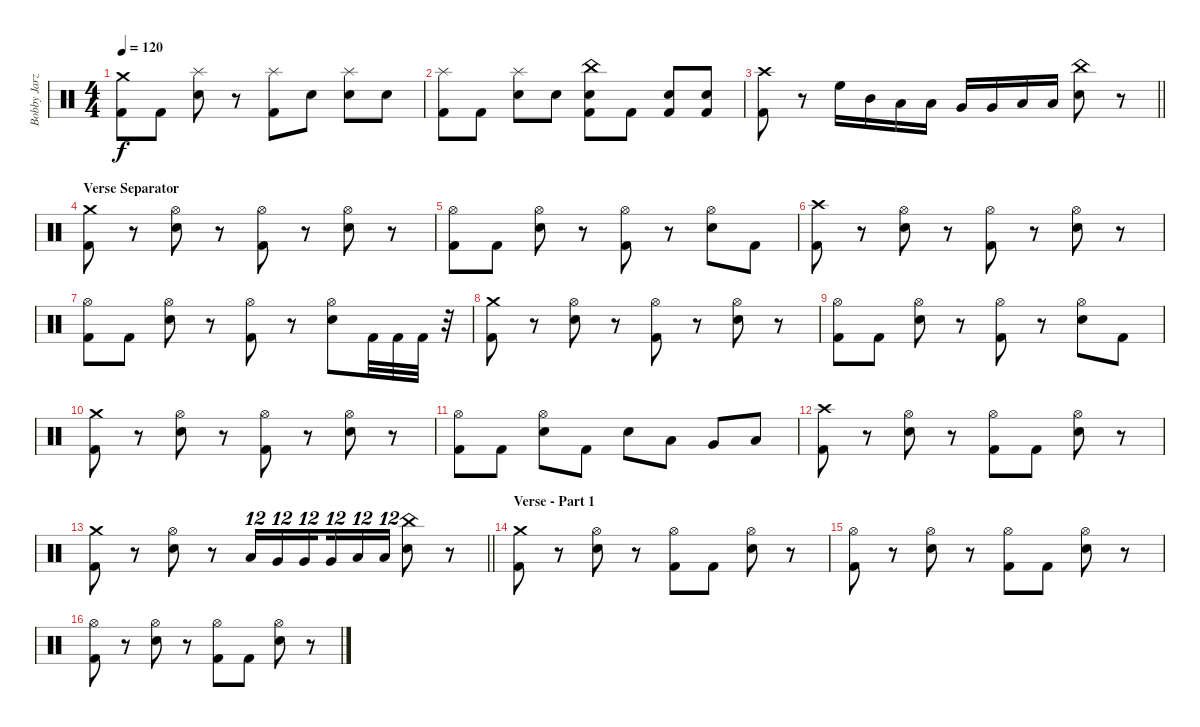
\track ("Bobby Jarzombek - Drums" "Bobby Jarz") {instrument percussion}
\staff {score}
\articulation defaults
\ts (4 4)
\tempo 120
\clef neutral
\ks c
("Crash medium (hit)" "Kick (hit) 2").8{dy f} "Kick (hit) 2".8 ("Splash (hit)" "Electric Snare (hit)").8 r.8 ("Splash (hit)" "Kick (hit) 2").8 "Snare (hit)".8 ("Splash (hit)" "Electric Snare (hit)").8 "Snare (hit)".8 |
("Splash (hit)" "Kick (hit) 2").8 "Kick (hit) 2".8 ("Splash (hit)" "Electric Snare (hit)").8 "Snare (hit)".8 ("China (hit)" "Electric Snare (hit)" "Kick (hit) 2").8 "Kick (hit) 2".8 ("Electric Snare (hit)" "Kick (hit) 2").8 ("Electric Snare (hit)" "Kick (hit) 2").8 |
\barLineRight lightlight
("Crash high (hit)" "Kick (hit) 2").8 r.8 "High Floor Tom (hit)".16 "Mid Tom (hit)".16 "Low Tom (hit)".16 "Low Tom (hit)".16 "Very Low Tom (hit)".16 "Very Low Tom (hit)".16 "Low Floor Tom (hit)".16 "Low Floor Tom (hit)".16 ("China (hit)" "Electric Snare (hit)").8 r.8 |
\section ("" "Verse Separator")
("Crash medium (hit)" "Kick (hit) 2").8 r.8 ("Hi-Hat (open)" "Electric Snare (hit)").8 r.8 ("Hi-Hat (open)" "Kick (hit) 2").8 r.8 ("Hi-Hat (open)" "Electric Snare (hit)").8 r.8 |
("Hi-Hat (open)" "Kick (hit) 2").8 "Kick (hit) 2".8 ("Hi-Hat (open)" "Electric Snare (hit)").8 r.8 ("Hi-Hat (open)" "Kick (hit) 2").8 r.8 ("Hi-Hat (open)" "Electric Snare (hit)").8 "Kick (hit) 2".8 |
("Crash high (hit)" "Kick (hit) 2").8 r.8 ("Hi-Hat (open)" "Electric Snare (hit)").8 r.8 ("Hi-Hat (open)" "Kick (hit) 2").8 r.8 ("Hi-Hat (open)" "Electric Snare (hit)").8 r.8 |
("Hi-Hat (open)" "Kick (hit) 2").8 "Kick (hit) 2".8 ("Hi-Hat (open)" "Electric Snare (hit)").8 r.8 ("Hi-Hat (open)" "Kick (hit) 2").8 r.8 ("Hi-Hat (open)" "Electric Snare (hit)").8 "Kick (hit) 2".32 "Kick (hit) 2".32 "Kick (hit) 2".32 r.32 |
("Crash medium (hit)" "Kick (hit) 2").8 r.8 ("Hi-Hat (open)" "Electric Snare (hit)").8 r.8 ("Hi-Hat (open)" "Kick (hit) 2").8 r.8 ("Hi-Hat (open)" "Electric Snare (hit)").8 r.8 |
("Hi-Hat (open)" "Kick (hit) 2").8 "Kick (hit) 2".8 ("Hi-Hat (open)" "Electric Snare (hit)").8 r.8 ("Hi-Hat (open)" "Kick (hit) 2").8 r.8 ("Hi-Hat (open)" "Electric Snare (hit)").8 "Kick (hit) 2".8 |
("Crash medium (hit)" "Kick (hit) 2").8 r.8 ("Hi-Hat (open)" "Electric Snare (hit)").8 r.8 ("Hi-Hat (open)" "Kick (hit) 2").8 r.8 ("Hi-Hat (open)" "Electric Snare (hit)").8 r.8 |
("Hi-Hat (open)" "Kick (hit) 2").8 "Kick (hit) 2".8 ("Hi-Hat (open)" "Electric Snare (hit)").8 "Kick (hit) 2".8 "Electric Snare (hit)".8 "Low Tom (hit)".8 "Very Low Tom (hit)".8 "Low Floor Tom (hit)".8 |
("Crash high (hit)" "Kick (hit) 2").8 r.8 ("Hi-Hat (open)" "Electric Snare (hit)").8 r.8 ("Hi-Hat (open)" "Kick (hit) 2").8 "Kick (hit) 2".8 ("Hi-Hat (open)" "Electric Snare (hit)").8 r.8 |
\barLineRight lightlight
("Crash medium (hit)" "Kick (hit) 2").8 r.8 ("Hi-Hat (open)" "Electric Snare (hit)").8 r.8 "Low Tom (hit)".16{tu (12 8)} "Very Low Tom (hit)".16{tu (12 8)} "Very Low Tom (hit)".16{tu (12 8) beam splitsecondary} "Very Low Tom (hit)".16{tu (12 8)} "Low Floor Tom (hit)".16{tu (12 8)} "Low Floor Tom (hit)".16{tu (12 8)} ("China (hit)" "Electric Snare (hit)").8 r.8 |
\section ("" "Verse - Part 1")
("Crash medium (hit)" "Kick (hit) 2").8 r.8 ("Hi-Hat (open)" "Electric Snare (hit)").8 r.8 ("Hi-Hat (open)" "Kick (hit) 2").8 "Kick (hit) 2".8 ("Hi-Hat (open)" "Electric Snare (hit)").8 r.8 |
("Hi-Hat (open)" "Kick (hit) 2").8 r.8 ("Hi-Hat (open)" "Electric Snare (hit)").8 r.8 ("Hi-Hat (open)" "Kick (hit) 2").8 "Kick (hit) 2".8 ("Hi-Hat (open)" "Electric Snare (hit)").8 r.8 |
("Hi-Hat (open)" "Kick (hit) 2").8 r.8 ("Hi-Hat (open)" "Electric Snare (hit)").8 r.8 ("Hi-Hat (open)" "Kick (hit) 2").8 "Kick (hit) 2".8 ("Hi-Hat (open)" "Electric Snare (hit)").8 r.8
